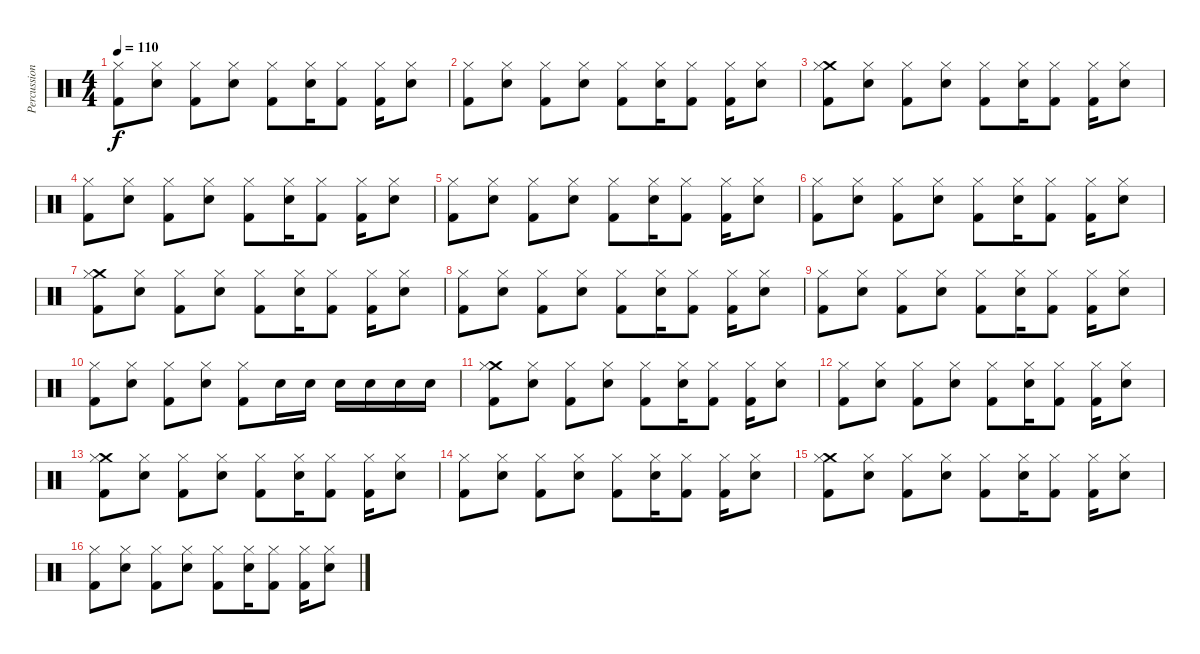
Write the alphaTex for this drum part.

\track ("Percussion" "Percussion") {instrument percussion}
\staff {score}
\articulation defaults
\ts (4 4)
\tempo 110
\clef neutral
\ks c
("Hi-Hat (closed)" "Kick (hit) 2").8{dy f} ("Hi-Hat (closed)" "Electric Snare (hit)").8 ("Hi-Hat (closed)" "Kick (hit) 2").8 ("Hi-Hat (closed)" "Electric Snare (hit)").8 ("Hi-Hat (closed)" "Kick (hit) 2").8 ("Hi-Hat (closed)" "Electric Snare (hit)").16 ("Hi-Hat (closed)" "Kick (hit) 2").8 ("Hi-Hat (closed)" "Kick (hit) 2").16 ("Hi-Hat (closed)" "Electric Snare (hit)").8 |
("Hi-Hat (closed)" "Kick (hit) 2").8 ("Hi-Hat (closed)" "Electric Snare (hit)").8 ("Hi-Hat (closed)" "Kick (hit) 2").8 ("Hi-Hat (closed)" "Electric Snare (hit)").8 ("Hi-Hat (closed)" "Kick (hit) 2").8 ("Hi-Hat (closed)" "Electric Snare (hit)").16 ("Hi-Hat (closed)" "Kick (hit) 2").8 ("Hi-Hat (closed)" "Kick (hit) 2").16 ("Hi-Hat (closed)" "Electric Snare (hit)").8 |
("Crash medium (hit)" "Hi-Hat (closed)" "Kick (hit) 2").8 ("Hi-Hat (closed)" "Electric Snare (hit)").8 ("Hi-Hat (closed)" "Kick (hit) 2").8 ("Hi-Hat (closed)" "Electric Snare (hit)").8 ("Hi-Hat (closed)" "Kick (hit) 2").8 ("Hi-Hat (closed)" "Electric Snare (hit)").16 ("Hi-Hat (closed)" "Kick (hit) 2").8 ("Hi-Hat (closed)" "Kick (hit) 2").16 ("Hi-Hat (closed)" "Electric Snare (hit)").8 |
("Hi-Hat (closed)" "Kick (hit) 2").8 ("Hi-Hat (closed)" "Electric Snare (hit)").8 ("Hi-Hat (closed)" "Kick (hit) 2").8 ("Hi-Hat (closed)" "Electric Snare (hit)").8 ("Hi-Hat (closed)" "Kick (hit) 2").8 ("Hi-Hat (closed)" "Electric Snare (hit)").16 ("Hi-Hat (closed)" "Kick (hit) 2").8 ("Hi-Hat (closed)" "Kick (hit) 2").16 ("Hi-Hat (closed)" "Electric Snare (hit)").8 |
("Hi-Hat (closed)" "Kick (hit) 2").8 ("Hi-Hat (closed)" "Electric Snare (hit)").8 ("Hi-Hat (closed)" "Kick (hit) 2").8 ("Hi-Hat (closed)" "Electric Snare (hit)").8 ("Hi-Hat (closed)" "Kick (hit) 2").8 ("Hi-Hat (closed)" "Electric Snare (hit)").16 ("Hi-Hat (closed)" "Kick (hit) 2").8 ("Hi-Hat (closed)" "Kick (hit) 2").16 ("Hi-Hat (closed)" "Electric Snare (hit)").8 |
("Hi-Hat (closed)" "Kick (hit) 2").8 ("Hi-Hat (closed)" "Electric Snare (hit)").8 ("Hi-Hat (closed)" "Kick (hit) 2").8 ("Hi-Hat (closed)" "Electric Snare (hit)").8 ("Hi-Hat (closed)" "Kick (hit) 2").8 ("Hi-Hat (closed)" "Electric Snare (hit)").16 ("Hi-Hat (closed)" "Kick (hit) 2").8 ("Hi-Hat (closed)" "Kick (hit) 2").16 ("Hi-Hat (closed)" "Electric Snare (hit)").8 |
("Crash medium (hit)" "Hi-Hat (closed)" "Kick (hit) 2").8 ("Hi-Hat (closed)" "Electric Snare (hit)").8 ("Hi-Hat (closed)" "Kick (hit) 2").8 ("Hi-Hat (closed)" "Electric Snare (hit)").8 ("Hi-Hat (closed)" "Kick (hit) 2").8 ("Hi-Hat (closed)" "Electric Snare (hit)").16 ("Hi-Hat (closed)" "Kick (hit) 2").8 ("Hi-Hat (closed)" "Kick (hit) 2").16 ("Hi-Hat (closed)" "Electric Snare (hit)").8 |
("Hi-Hat (closed)" "Kick (hit) 2").8 ("Hi-Hat (closed)" "Electric Snare (hit)").8 ("Hi-Hat (closed)" "Kick (hit) 2").8 ("Hi-Hat (closed)" "Electric Snare (hit)").8 ("Hi-Hat (closed)" "Kick (hit) 2").8 ("Hi-Hat (closed)" "Electric Snare (hit)").16 ("Hi-Hat (closed)" "Kick (hit) 2").8 ("Hi-Hat (closed)" "Kick (hit) 2").16 ("Hi-Hat (closed)" "Electric Snare (hit)").8 |
("Hi-Hat (closed)" "Kick (hit) 2").8 ("Hi-Hat (closed)" "Electric Snare (hit)").8 ("Hi-Hat (closed)" "Kick (hit) 2").8 ("Hi-Hat (closed)" "Electric Snare (hit)").8 ("Hi-Hat (closed)" "Kick (hit) 2").8 ("Hi-Hat (closed)" "Electric Snare (hit)").16 ("Hi-Hat (closed)" "Kick (hit) 2").8 ("Hi-Hat (closed)" "Kick (hit) 2").16 ("Hi-Hat (closed)" "Electric Snare (hit)").8 |
("Hi-Hat (closed)" "Kick (hit) 2").8 ("Hi-Hat (closed)" "Electric Snare (hit)").8 ("Hi-Hat (closed)" "Kick (hit) 2").8 ("Hi-Hat (closed)" "Electric Snare (hit)").8 ("Hi-Hat (closed)" "Kick (hit) 2").8 "Electric Snare (hit)".16 "Electric Snare (hit)".16 "Electric Snare (hit)".16 "Electric Snare (hit)".16 "Electric Snare (hit)".16 "Electric Snare (hit)".16 |
("Crash medium (hit)" "Hi-Hat (closed)" "Kick (hit) 2").8 ("Hi-Hat (closed)" "Electric Snare (hit)").8 ("Hi-Hat (closed)" "Kick (hit) 2").8 ("Hi-Hat (closed)" "Electric Snare (hit)").8 ("Hi-Hat (closed)" "Kick (hit) 2").8 ("Hi-Hat (closed)" "Electric Snare (hit)").16 ("Hi-Hat (closed)" "Kick (hit) 2").8 ("Hi-Hat (closed)" "Kick (hit) 2").16 ("Hi-Hat (closed)" "Electric Snare (hit)").8 |
("Hi-Hat (closed)" "Kick (hit) 2").8 ("Hi-Hat (closed)" "Electric Snare (hit)").8 ("Hi-Hat (closed)" "Kick (hit) 2").8 ("Hi-Hat (closed)" "Electric Snare (hit)").8 ("Hi-Hat (closed)" "Kick (hit) 2").8 ("Hi-Hat (closed)" "Electric Snare (hit)").16 ("Hi-Hat (closed)" "Kick (hit) 2").8 ("Hi-Hat (closed)" "Kick (hit) 2").16 ("Hi-Hat (closed)" "Electric Snare (hit)").8 |
("Crash medium (hit)" "Hi-Hat (closed)" "Kick (hit) 2").8 ("Hi-Hat (closed)" "Electric Snare (hit)").8 ("Hi-Hat (closed)" "Kick (hit) 2").8 ("Hi-Hat (closed)" "Electric Snare (hit)").8 ("Hi-Hat (closed)" "Kick (hit) 2").8 ("Hi-Hat (closed)" "Electric Snare (hit)").16 ("Hi-Hat (closed)" "Kick (hit) 2").8 ("Hi-Hat (closed)" "Kick (hit) 2").16 ("Hi-Hat (closed)" "Electric Snare (hit)").8 |
("Hi-Hat (closed)" "Kick (hit) 2").8 ("Hi-Hat (closed)" "Electric Snare (hit)").8 ("Hi-Hat (closed)" "Kick (hit) 2").8 ("Hi-Hat (closed)" "Electric Snare (hit)").8 ("Hi-Hat (closed)" "Kick (hit) 2").8 ("Hi-Hat (closed)" "Electric Snare (hit)").16 ("Hi-Hat (closed)" "Kick (hit) 2").8 ("Hi-Hat (closed)" "Kick (hit) 2").16 ("Hi-Hat (closed)" "Electric Snare (hit)").8 |
("Crash medium (hit)" "Hi-Hat (closed)" "Kick (hit) 2").8 ("Hi-Hat (closed)" "Electric Snare (hit)").8 ("Hi-Hat (closed)" "Kick (hit) 2").8 ("Hi-Hat (closed)" "Electric Snare (hit)").8 ("Hi-Hat (closed)" "Kick (hit) 2").8 ("Hi-Hat (closed)" "Electric Snare (hit)").16 ("Hi-Hat (closed)" "Kick (hit) 2").8 ("Hi-Hat (closed)" "Kick (hit) 2").16 ("Hi-Hat (closed)" "Electric Snare (hit)").8 |
("Hi-Hat (closed)" "Kick (hit) 2").8 ("Hi-Hat (closed)" "Electric Snare (hit)").8 ("Hi-Hat (closed)" "Kick (hit) 2").8 ("Hi-Hat (closed)" "Electric Snare (hit)").8 ("Hi-Hat (closed)" "Kick (hit) 2").8 ("Hi-Hat (closed)" "Electric Snare (hit)").16 ("Hi-Hat (closed)" "Kick (hit) 2").8 ("Hi-Hat (closed)" "Kick (hit) 2").16 ("Hi-Hat (closed)" "Electric Snare (hit)").8
